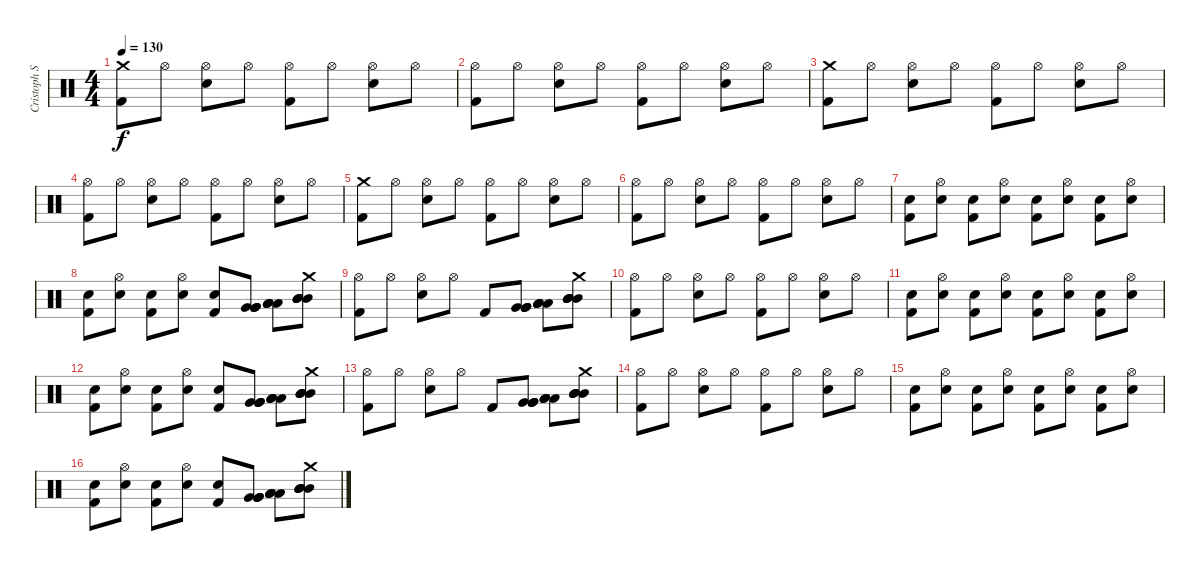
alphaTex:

\track ("Cristoph Schneider" "Cristoph S") {instrument percussion}
\staff {score}
\articulation defaults
\ts (4 4)
\tempo 130
\clef neutral
\ks c
("Crash medium (hit)" "Kick (hit) 2").8{dy f} "Hi-Hat (open)".8 ("Hi-Hat (open)" "Electric Snare (hit)").8 "Hi-Hat (open)".8 ("Hi-Hat (open)" "Kick (hit) 2").8 "Hi-Hat (open)".8 ("Hi-Hat (open)" "Electric Snare (hit)").8 "Hi-Hat (open)".8 |
("Hi-Hat (open)" "Kick (hit) 2").8 "Hi-Hat (open)".8 ("Hi-Hat (open)" "Electric Snare (hit)").8 "Hi-Hat (open)".8 ("Hi-Hat (open)" "Kick (hit) 2").8 "Hi-Hat (open)".8 ("Hi-Hat (open)" "Electric Snare (hit)").8 "Hi-Hat (open)".8 |
("Crash medium (hit)" "Kick (hit) 2").8 "Hi-Hat (open)".8 ("Hi-Hat (open)" "Electric Snare (hit)").8 "Hi-Hat (open)".8 ("Hi-Hat (open)" "Kick (hit) 2").8 "Hi-Hat (open)".8 ("Hi-Hat (open)" "Electric Snare (hit)").8 "Hi-Hat (open)".8 |
("Hi-Hat (open)" "Kick (hit) 2").8 "Hi-Hat (open)".8 ("Hi-Hat (open)" "Electric Snare (hit)").8 "Hi-Hat (open)".8 ("Hi-Hat (open)" "Kick (hit) 2").8 "Hi-Hat (open)".8 ("Hi-Hat (open)" "Electric Snare (hit)").8 "Hi-Hat (open)".8 |
("Crash medium (hit)" "Kick (hit) 2").8 "Hi-Hat (open)".8 ("Hi-Hat (open)" "Electric Snare (hit)").8 "Hi-Hat (open)".8 ("Hi-Hat (open)" "Kick (hit) 2").8 "Hi-Hat (open)".8 ("Hi-Hat (open)" "Electric Snare (hit)").8 "Hi-Hat (open)".8 |
("Hi-Hat (open)" "Kick (hit) 2").8 "Hi-Hat (open)".8 ("Hi-Hat (open)" "Electric Snare (hit)").8 "Hi-Hat (open)".8 ("Hi-Hat (open)" "Kick (hit) 2").8 "Hi-Hat (open)".8 ("Hi-Hat (open)" "Electric Snare (hit)").8 "Hi-Hat (open)".8 |
("Electric Snare (hit)" "Kick (hit) 2").8 ("Hi-Hat (open)" "Electric Snare (hit)").8 ("Electric Snare (hit)" "Kick (hit) 2").8 ("Hi-Hat (open)" "Electric Snare (hit)").8 ("Electric Snare (hit)" "Kick (hit) 2").8 ("Hi-Hat (open)" "Electric Snare (hit)").8 ("Electric Snare (hit)" "Kick (hit) 2").8 ("Hi-Hat (open)" "Electric Snare (hit)").8 |
("Electric Snare (hit)" "Kick (hit) 2").8 ("Hi-Hat (open)" "Electric Snare (hit)").8 ("Electric Snare (hit)" "Kick (hit) 2").8 ("Hi-Hat (open)" "Electric Snare (hit)").8 ("Electric Snare (hit)" "Kick (hit) 2").8 ("Very Low Tom (hit)" "Very Low Tom (hit)" "Very Low Tom (hit)" "Very Low Tom (hit)").8 ("Low Floor Tom (hit)" "Low Floor Tom (hit)" "Low Floor Tom (hit)" "Low Floor Tom (hit)").8 ("Mid Tom (hit)" "Mid Tom (hit)" "Mid Tom (hit)" "Mid Tom (hit)" "Crash medium (hit)").8 |
("Hi-Hat (open)" "Kick (hit) 2").8 "Hi-Hat (open)".8 ("Hi-Hat (open)" "Electric Snare (hit)").8 "Hi-Hat (open)".8 "Kick (hit) 2".8 ("Very Low Tom (hit)" "Very Low Tom (hit)" "Very Low Tom (hit)" "Very Low Tom (hit)").8 ("Low Floor Tom (hit)" "Low Floor Tom (hit)" "Low Floor Tom (hit)" "Low Floor Tom (hit)").8 ("Mid Tom (hit)" "Mid Tom (hit)" "Mid Tom (hit)" "Mid Tom (hit)" "Crash medium (hit)").8 |
("Hi-Hat (open)" "Kick (hit) 2").8 "Hi-Hat (open)".8 ("Hi-Hat (open)" "Electric Snare (hit)").8 "Hi-Hat (open)".8 ("Hi-Hat (open)" "Kick (hit) 2").8 "Hi-Hat (open)".8 ("Hi-Hat (open)" "Electric Snare (hit)").8 "Hi-Hat (open)".8 |
("Electric Snare (hit)" "Kick (hit) 2").8 ("Hi-Hat (open)" "Electric Snare (hit)").8 ("Electric Snare (hit)" "Kick (hit) 2").8 ("Hi-Hat (open)" "Electric Snare (hit)").8 ("Electric Snare (hit)" "Kick (hit) 2").8 ("Hi-Hat (open)" "Electric Snare (hit)").8 ("Electric Snare (hit)" "Kick (hit) 2").8 ("Hi-Hat (open)" "Electric Snare (hit)").8 |
("Electric Snare (hit)" "Kick (hit) 2").8 ("Hi-Hat (open)" "Electric Snare (hit)").8 ("Electric Snare (hit)" "Kick (hit) 2").8 ("Hi-Hat (open)" "Electric Snare (hit)").8 ("Electric Snare (hit)" "Kick (hit) 2").8 ("Very Low Tom (hit)" "Very Low Tom (hit)" "Very Low Tom (hit)" "Very Low Tom (hit)").8 ("Low Floor Tom (hit)" "Low Floor Tom (hit)" "Low Floor Tom (hit)" "Low Floor Tom (hit)").8 ("Mid Tom (hit)" "Mid Tom (hit)" "Mid Tom (hit)" "Mid Tom (hit)" "Crash medium (hit)").8 |
("Hi-Hat (open)" "Kick (hit) 2").8 "Hi-Hat (open)".8 ("Hi-Hat (open)" "Electric Snare (hit)").8 "Hi-Hat (open)".8 "Kick (hit) 2".8 ("Very Low Tom (hit)" "Very Low Tom (hit)" "Very Low Tom (hit)" "Very Low Tom (hit)").8 ("Low Floor Tom (hit)" "Low Floor Tom (hit)" "Low Floor Tom (hit)" "Low Floor Tom (hit)").8 ("Mid Tom (hit)" "Mid Tom (hit)" "Mid Tom (hit)" "Mid Tom (hit)" "Crash medium (hit)").8 |
("Hi-Hat (open)" "Kick (hit) 2").8 "Hi-Hat (open)".8 ("Hi-Hat (open)" "Electric Snare (hit)").8 "Hi-Hat (open)".8 ("Hi-Hat (open)" "Kick (hit) 2").8 "Hi-Hat (open)".8 ("Hi-Hat (open)" "Electric Snare (hit)").8 "Hi-Hat (open)".8 |
("Electric Snare (hit)" "Kick (hit) 2").8 ("Hi-Hat (open)" "Electric Snare (hit)").8 ("Electric Snare (hit)" "Kick (hit) 2").8 ("Hi-Hat (open)" "Electric Snare (hit)").8 ("Electric Snare (hit)" "Kick (hit) 2").8 ("Hi-Hat (open)" "Electric Snare (hit)").8 ("Electric Snare (hit)" "Kick (hit) 2").8 ("Hi-Hat (open)" "Electric Snare (hit)").8 |
("Electric Snare (hit)" "Kick (hit) 2").8 ("Hi-Hat (open)" "Electric Snare (hit)").8 ("Electric Snare (hit)" "Kick (hit) 2").8 ("Hi-Hat (open)" "Electric Snare (hit)").8 ("Electric Snare (hit)" "Kick (hit) 2").8 ("Very Low Tom (hit)" "Very Low Tom (hit)" "Very Low Tom (hit)" "Very Low Tom (hit)").8 ("Low Floor Tom (hit)" "Low Floor Tom (hit)" "Low Floor Tom (hit)" "Low Floor Tom (hit)").8 ("Mid Tom (hit)" "Mid Tom (hit)" "Mid Tom (hit)" "Mid Tom (hit)" "Crash medium (hit)").8
